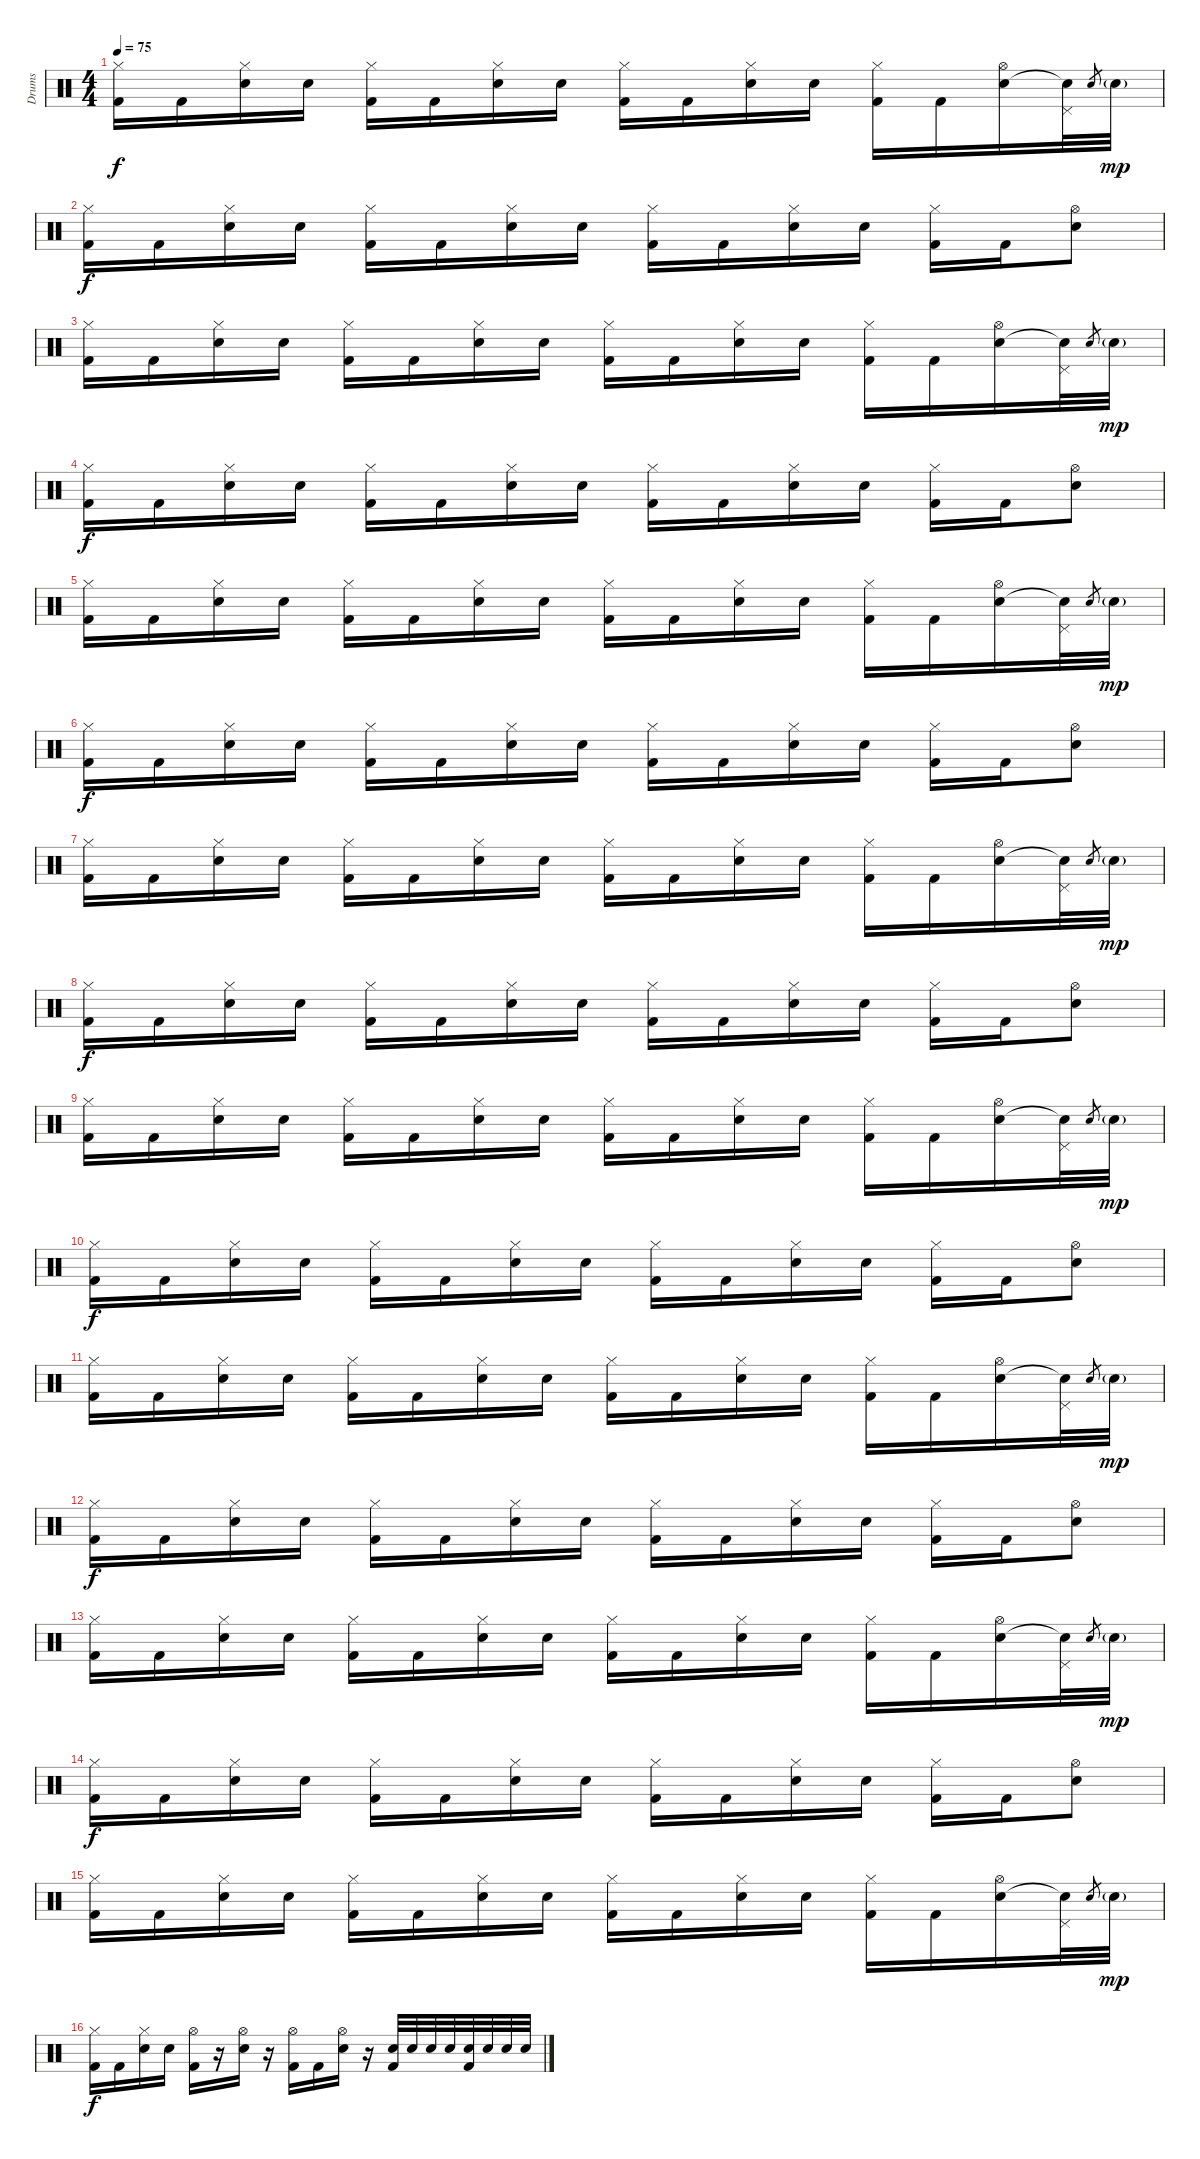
\track ("Drums" "Drums") {instrument percussion}
\staff {score}
\articulation defaults
\ts (4 4)
\tempo 75
\clef neutral
\ks c
("Hi-Hat (closed)" "Kick (hit) 2").16{dy f} "Kick (hit) 2".16 ("Hi-Hat (closed)" "Electric Snare (hit)").16 "Electric Snare (hit)".16 ("Hi-Hat (closed)" "Kick (hit) 2").16 "Kick (hit) 2".16 ("Hi-Hat (closed)" "Electric Snare (hit)").16 "Electric Snare (hit)".16 ("Hi-Hat (closed)" "Kick (hit) 2").16 "Kick (hit) 2".16 ("Hi-Hat (closed)" "Electric Snare (hit)").16 "Electric Snare (hit)".16 ("Hi-Hat (closed)" "Kick (hit) 2").16 "Kick (hit) 2".16 ("Hi-Hat (open)" "Electric Snare (hit)").16 ("Pedal Hi-Hat (hit)" "Snare (hit)"{t}).32 "Electric Snare (hit)".8{gr} "Electric Snare (hit)"{g}.32{dy mp} |
("Hi-Hat (closed)" "Kick (hit) 2").16{dy f} "Kick (hit) 2".16 ("Hi-Hat (closed)" "Electric Snare (hit)").16 "Electric Snare (hit)".16 ("Hi-Hat (closed)" "Kick (hit) 2").16 "Kick (hit) 2".16 ("Hi-Hat (closed)" "Electric Snare (hit)").16 "Electric Snare (hit)".16 ("Hi-Hat (closed)" "Kick (hit) 2").16 "Kick (hit) 2".16 ("Hi-Hat (closed)" "Electric Snare (hit)").16 "Electric Snare (hit)".16 ("Hi-Hat (closed)" "Kick (hit) 2").16 "Kick (hit) 2".16 ("Hi-Hat (open)" "Electric Snare (hit)").8 |
("Hi-Hat (closed)" "Kick (hit) 2").16 "Kick (hit) 2".16 ("Hi-Hat (closed)" "Electric Snare (hit)").16 "Electric Snare (hit)".16 ("Hi-Hat (closed)" "Kick (hit) 2").16 "Kick (hit) 2".16 ("Hi-Hat (closed)" "Electric Snare (hit)").16 "Electric Snare (hit)".16 ("Hi-Hat (closed)" "Kick (hit) 2").16 "Kick (hit) 2".16 ("Hi-Hat (closed)" "Electric Snare (hit)").16 "Electric Snare (hit)".16 ("Hi-Hat (closed)" "Kick (hit) 2").16 "Kick (hit) 2".16 ("Hi-Hat (open)" "Electric Snare (hit)").16 ("Pedal Hi-Hat (hit)" "Snare (hit)"{t}).32 "Electric Snare (hit)".8{gr} "Electric Snare (hit)"{g}.32{dy mp} |
("Hi-Hat (closed)" "Kick (hit) 2").16{dy f} "Kick (hit) 2".16 ("Hi-Hat (closed)" "Electric Snare (hit)").16 "Electric Snare (hit)".16 ("Hi-Hat (closed)" "Kick (hit) 2").16 "Kick (hit) 2".16 ("Hi-Hat (closed)" "Electric Snare (hit)").16 "Electric Snare (hit)".16 ("Hi-Hat (closed)" "Kick (hit) 2").16 "Kick (hit) 2".16 ("Hi-Hat (closed)" "Electric Snare (hit)").16 "Electric Snare (hit)".16 ("Hi-Hat (closed)" "Kick (hit) 2").16 "Kick (hit) 2".16 ("Hi-Hat (open)" "Electric Snare (hit)").8 |
("Hi-Hat (closed)" "Kick (hit) 2").16 "Kick (hit) 2".16 ("Hi-Hat (closed)" "Electric Snare (hit)").16 "Electric Snare (hit)".16 ("Hi-Hat (closed)" "Kick (hit) 2").16 "Kick (hit) 2".16 ("Hi-Hat (closed)" "Electric Snare (hit)").16 "Electric Snare (hit)".16 ("Hi-Hat (closed)" "Kick (hit) 2").16 "Kick (hit) 2".16 ("Hi-Hat (closed)" "Electric Snare (hit)").16 "Electric Snare (hit)".16 ("Hi-Hat (closed)" "Kick (hit) 2").16 "Kick (hit) 2".16 ("Hi-Hat (open)" "Electric Snare (hit)").16 ("Pedal Hi-Hat (hit)" "Snare (hit)"{t}).32 "Electric Snare (hit)".8{gr} "Electric Snare (hit)"{g}.32{dy mp} |
("Hi-Hat (closed)" "Kick (hit) 2").16{dy f} "Kick (hit) 2".16 ("Hi-Hat (closed)" "Electric Snare (hit)").16 "Electric Snare (hit)".16 ("Hi-Hat (closed)" "Kick (hit) 2").16 "Kick (hit) 2".16 ("Hi-Hat (closed)" "Electric Snare (hit)").16 "Electric Snare (hit)".16 ("Hi-Hat (closed)" "Kick (hit) 2").16 "Kick (hit) 2".16 ("Hi-Hat (closed)" "Electric Snare (hit)").16 "Electric Snare (hit)".16 ("Hi-Hat (closed)" "Kick (hit) 2").16 "Kick (hit) 2".16 ("Hi-Hat (open)" "Electric Snare (hit)").8 |
("Hi-Hat (closed)" "Kick (hit) 2").16 "Kick (hit) 2".16 ("Hi-Hat (closed)" "Electric Snare (hit)").16 "Electric Snare (hit)".16 ("Hi-Hat (closed)" "Kick (hit) 2").16 "Kick (hit) 2".16 ("Hi-Hat (closed)" "Electric Snare (hit)").16 "Electric Snare (hit)".16 ("Hi-Hat (closed)" "Kick (hit) 2").16 "Kick (hit) 2".16 ("Hi-Hat (closed)" "Electric Snare (hit)").16 "Electric Snare (hit)".16 ("Hi-Hat (closed)" "Kick (hit) 2").16 "Kick (hit) 2".16 ("Hi-Hat (open)" "Electric Snare (hit)").16 ("Pedal Hi-Hat (hit)" "Snare (hit)"{t}).32 "Electric Snare (hit)".8{gr} "Electric Snare (hit)"{g}.32{dy mp} |
("Hi-Hat (closed)" "Kick (hit) 2").16{dy f} "Kick (hit) 2".16 ("Hi-Hat (closed)" "Electric Snare (hit)").16 "Electric Snare (hit)".16 ("Hi-Hat (closed)" "Kick (hit) 2").16 "Kick (hit) 2".16 ("Hi-Hat (closed)" "Electric Snare (hit)").16 "Electric Snare (hit)".16 ("Hi-Hat (closed)" "Kick (hit) 2").16 "Kick (hit) 2".16 ("Hi-Hat (closed)" "Electric Snare (hit)").16 "Electric Snare (hit)".16 ("Hi-Hat (closed)" "Kick (hit) 2").16 "Kick (hit) 2".16 ("Hi-Hat (open)" "Electric Snare (hit)").8 |
("Hi-Hat (closed)" "Kick (hit) 2").16 "Kick (hit) 2".16 ("Hi-Hat (closed)" "Electric Snare (hit)").16 "Electric Snare (hit)".16 ("Hi-Hat (closed)" "Kick (hit) 2").16 "Kick (hit) 2".16 ("Hi-Hat (closed)" "Electric Snare (hit)").16 "Electric Snare (hit)".16 ("Hi-Hat (closed)" "Kick (hit) 2").16 "Kick (hit) 2".16 ("Hi-Hat (closed)" "Electric Snare (hit)").16 "Electric Snare (hit)".16 ("Hi-Hat (closed)" "Kick (hit) 2").16 "Kick (hit) 2".16 ("Hi-Hat (open)" "Electric Snare (hit)").16 ("Pedal Hi-Hat (hit)" "Snare (hit)"{t}).32 "Electric Snare (hit)".8{gr} "Electric Snare (hit)"{g}.32{dy mp} |
("Hi-Hat (closed)" "Kick (hit) 2").16{dy f} "Kick (hit) 2".16 ("Hi-Hat (closed)" "Electric Snare (hit)").16 "Electric Snare (hit)".16 ("Hi-Hat (closed)" "Kick (hit) 2").16 "Kick (hit) 2".16 ("Hi-Hat (closed)" "Electric Snare (hit)").16 "Electric Snare (hit)".16 ("Hi-Hat (closed)" "Kick (hit) 2").16 "Kick (hit) 2".16 ("Hi-Hat (closed)" "Electric Snare (hit)").16 "Electric Snare (hit)".16 ("Hi-Hat (closed)" "Kick (hit) 2").16 "Kick (hit) 2".16 ("Hi-Hat (open)" "Electric Snare (hit)").8 |
("Hi-Hat (closed)" "Kick (hit) 2").16 "Kick (hit) 2".16 ("Hi-Hat (closed)" "Electric Snare (hit)").16 "Electric Snare (hit)".16 ("Hi-Hat (closed)" "Kick (hit) 2").16 "Kick (hit) 2".16 ("Hi-Hat (closed)" "Electric Snare (hit)").16 "Electric Snare (hit)".16 ("Hi-Hat (closed)" "Kick (hit) 2").16 "Kick (hit) 2".16 ("Hi-Hat (closed)" "Electric Snare (hit)").16 "Electric Snare (hit)".16 ("Hi-Hat (closed)" "Kick (hit) 2").16 "Kick (hit) 2".16 ("Hi-Hat (open)" "Electric Snare (hit)").16 ("Pedal Hi-Hat (hit)" "Snare (hit)"{t}).32 "Electric Snare (hit)".8{gr} "Electric Snare (hit)"{g}.32{dy mp} |
("Hi-Hat (closed)" "Kick (hit) 2").16{dy f} "Kick (hit) 2".16 ("Hi-Hat (closed)" "Electric Snare (hit)").16 "Electric Snare (hit)".16 ("Hi-Hat (closed)" "Kick (hit) 2").16 "Kick (hit) 2".16 ("Hi-Hat (closed)" "Electric Snare (hit)").16 "Electric Snare (hit)".16 ("Hi-Hat (closed)" "Kick (hit) 2").16 "Kick (hit) 2".16 ("Hi-Hat (closed)" "Electric Snare (hit)").16 "Electric Snare (hit)".16 ("Hi-Hat (closed)" "Kick (hit) 2").16 "Kick (hit) 2".16 ("Hi-Hat (open)" "Electric Snare (hit)").8 |
("Hi-Hat (closed)" "Kick (hit) 2").16 "Kick (hit) 2".16 ("Hi-Hat (closed)" "Electric Snare (hit)").16 "Electric Snare (hit)".16 ("Hi-Hat (closed)" "Kick (hit) 2").16 "Kick (hit) 2".16 ("Hi-Hat (closed)" "Electric Snare (hit)").16 "Electric Snare (hit)".16 ("Hi-Hat (closed)" "Kick (hit) 2").16 "Kick (hit) 2".16 ("Hi-Hat (closed)" "Electric Snare (hit)").16 "Electric Snare (hit)".16 ("Hi-Hat (closed)" "Kick (hit) 2").16 "Kick (hit) 2".16 ("Hi-Hat (open)" "Electric Snare (hit)").16 ("Pedal Hi-Hat (hit)" "Snare (hit)"{t}).32 "Electric Snare (hit)".8{gr} "Electric Snare (hit)"{g}.32{dy mp} |
("Hi-Hat (closed)" "Kick (hit) 2").16{dy f} "Kick (hit) 2".16 ("Hi-Hat (closed)" "Electric Snare (hit)").16 "Electric Snare (hit)".16 ("Hi-Hat (closed)" "Kick (hit) 2").16 "Kick (hit) 2".16 ("Hi-Hat (closed)" "Electric Snare (hit)").16 "Electric Snare (hit)".16 ("Hi-Hat (closed)" "Kick (hit) 2").16 "Kick (hit) 2".16 ("Hi-Hat (closed)" "Electric Snare (hit)").16 "Electric Snare (hit)".16 ("Hi-Hat (closed)" "Kick (hit) 2").16 "Kick (hit) 2".16 ("Hi-Hat (open)" "Electric Snare (hit)").8 |
("Hi-Hat (closed)" "Kick (hit) 2").16 "Kick (hit) 2".16 ("Hi-Hat (closed)" "Electric Snare (hit)").16 "Electric Snare (hit)".16 ("Hi-Hat (closed)" "Kick (hit) 2").16 "Kick (hit) 2".16 ("Hi-Hat (closed)" "Electric Snare (hit)").16 "Electric Snare (hit)".16 ("Hi-Hat (closed)" "Kick (hit) 2").16 "Kick (hit) 2".16 ("Hi-Hat (closed)" "Electric Snare (hit)").16 "Electric Snare (hit)".16 ("Hi-Hat (closed)" "Kick (hit) 2").16 "Kick (hit) 2".16 ("Hi-Hat (open)" "Electric Snare (hit)").16 ("Pedal Hi-Hat (hit)" "Snare (hit)"{t}).32 "Electric Snare (hit)".8{gr} "Electric Snare (hit)"{g}.32{dy mp} |
("Hi-Hat (closed)" "Kick (hit) 2").16{dy f} "Kick (hit) 2".16 ("Hi-Hat (closed)" "Electric Snare (hit)").16 "Electric Snare (hit)".16 ("Hi-Hat (open)" "Kick (hit) 2").16 r.16 ("Hi-Hat (open)" "Electric Snare (hit)").16 r.16 ("Hi-Hat (open)" "Kick (hit) 2").16 "Kick (hit) 2".16 ("Hi-Hat (open)" "Electric Snare (hit)").16 r.16 ("Electric Snare (hit)" "Kick (hit) 2").32 "Electric Snare (hit)".32 "Electric Snare (hit)".32 "Electric Snare (hit)".32 ("Electric Snare (hit)" "Kick (hit) 2").32 "Electric Snare (hit)".32 "Electric Snare (hit)".32 "Electric Snare (hit)".32
